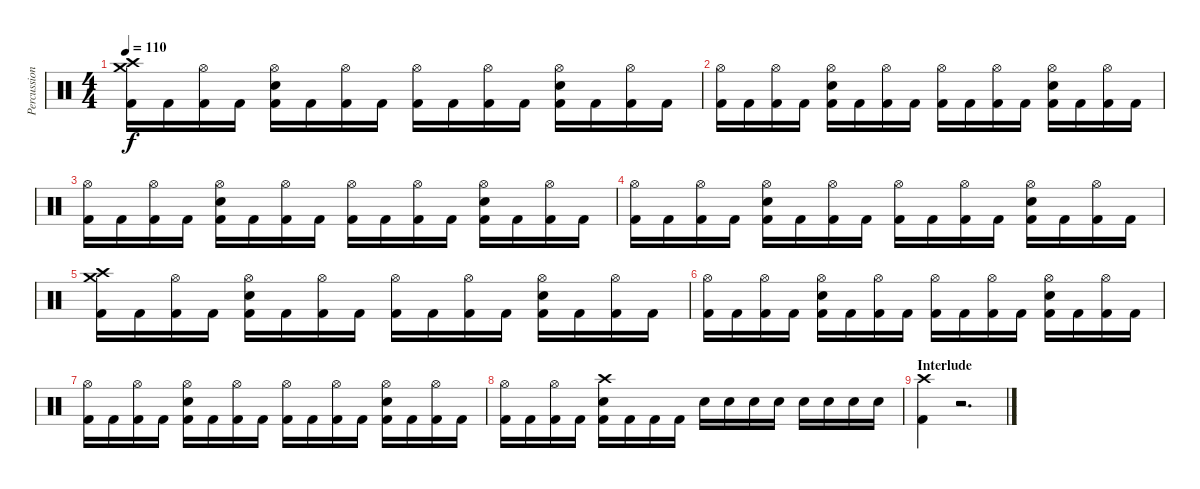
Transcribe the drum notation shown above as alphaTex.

\track ("Percussions" "Percussion") {instrument percussion}
\staff {score}
\articulation defaults
\ts (4 4)
\tempo 110
\clef neutral
\ks c
("Crash high (hit)" "Crash medium (hit)" "Kick (hit) 2").16{dy f} "Kick (hit) 2".16 ("Hi-Hat (open)" "Kick (hit) 2").16 "Kick (hit) 2".16 ("Hi-Hat (open)" "Electric Snare (hit)" "Kick (hit) 2").16 "Kick (hit) 2".16 ("Hi-Hat (open)" "Kick (hit) 2").16 "Kick (hit) 2".16 ("Hi-Hat (open)" "Kick (hit) 2").16 "Kick (hit) 2".16 ("Hi-Hat (open)" "Kick (hit) 2").16 "Kick (hit) 2".16 ("Hi-Hat (open)" "Electric Snare (hit)" "Kick (hit) 2").16 "Kick (hit) 2".16 ("Hi-Hat (open)" "Kick (hit) 2").16 "Kick (hit) 2".16 |
("Hi-Hat (open)" "Kick (hit) 2").16 "Kick (hit) 2".16 ("Hi-Hat (open)" "Kick (hit) 2").16 "Kick (hit) 2".16 ("Hi-Hat (open)" "Electric Snare (hit)" "Kick (hit) 2").16 "Kick (hit) 2".16 ("Hi-Hat (open)" "Kick (hit) 2").16 "Kick (hit) 2".16 ("Hi-Hat (open)" "Kick (hit) 2").16 "Kick (hit) 2".16 ("Hi-Hat (open)" "Kick (hit) 2").16 "Kick (hit) 2".16 ("Hi-Hat (open)" "Electric Snare (hit)" "Kick (hit) 2").16 "Kick (hit) 2".16 ("Hi-Hat (open)" "Kick (hit) 2").16 "Kick (hit) 2".16 |
("Hi-Hat (open)" "Kick (hit) 2").16 "Kick (hit) 2".16 ("Hi-Hat (open)" "Kick (hit) 2").16 "Kick (hit) 2".16 ("Hi-Hat (open)" "Electric Snare (hit)" "Kick (hit) 2").16 "Kick (hit) 2".16 ("Hi-Hat (open)" "Kick (hit) 2").16 "Kick (hit) 2".16 ("Hi-Hat (open)" "Kick (hit) 2").16 "Kick (hit) 2".16 ("Hi-Hat (open)" "Kick (hit) 2").16 "Kick (hit) 2".16 ("Hi-Hat (open)" "Electric Snare (hit)" "Kick (hit) 2").16 "Kick (hit) 2".16 ("Hi-Hat (open)" "Kick (hit) 2").16 "Kick (hit) 2".16 |
("Hi-Hat (open)" "Kick (hit) 2").16 "Kick (hit) 2".16 ("Hi-Hat (open)" "Kick (hit) 2").16 "Kick (hit) 2".16 ("Hi-Hat (open)" "Electric Snare (hit)" "Kick (hit) 2").16 "Kick (hit) 2".16 ("Hi-Hat (open)" "Kick (hit) 2").16 "Kick (hit) 2".16 ("Hi-Hat (open)" "Kick (hit) 2").16 "Kick (hit) 2".16 ("Hi-Hat (open)" "Kick (hit) 2").16 "Kick (hit) 2".16 ("Hi-Hat (open)" "Electric Snare (hit)" "Kick (hit) 2").16 "Kick (hit) 2".16 ("Hi-Hat (open)" "Kick (hit) 2").16 "Kick (hit) 2".16 |
("Crash high (hit)" "Crash medium (hit)" "Kick (hit) 2").16 "Kick (hit) 2".16 ("Hi-Hat (open)" "Kick (hit) 2").16 "Kick (hit) 2".16 ("Hi-Hat (open)" "Electric Snare (hit)" "Kick (hit) 2").16 "Kick (hit) 2".16 ("Hi-Hat (open)" "Kick (hit) 2").16 "Kick (hit) 2".16 ("Hi-Hat (open)" "Kick (hit) 2").16 "Kick (hit) 2".16 ("Hi-Hat (open)" "Kick (hit) 2").16 "Kick (hit) 2".16 ("Hi-Hat (open)" "Electric Snare (hit)" "Kick (hit) 2").16 "Kick (hit) 2".16 ("Hi-Hat (open)" "Kick (hit) 2").16 "Kick (hit) 2".16 |
("Hi-Hat (open)" "Kick (hit) 2").16 "Kick (hit) 2".16 ("Hi-Hat (open)" "Kick (hit) 2").16 "Kick (hit) 2".16 ("Hi-Hat (open)" "Electric Snare (hit)" "Kick (hit) 2").16 "Kick (hit) 2".16 ("Hi-Hat (open)" "Kick (hit) 2").16 "Kick (hit) 2".16 ("Hi-Hat (open)" "Kick (hit) 2").16 "Kick (hit) 2".16 ("Hi-Hat (open)" "Kick (hit) 2").16 "Kick (hit) 2".16 ("Hi-Hat (open)" "Electric Snare (hit)" "Kick (hit) 2").16 "Kick (hit) 2".16 ("Hi-Hat (open)" "Kick (hit) 2").16 "Kick (hit) 2".16 |
("Hi-Hat (open)" "Kick (hit) 2").16 "Kick (hit) 2".16 ("Hi-Hat (open)" "Kick (hit) 2").16 "Kick (hit) 2".16 ("Hi-Hat (open)" "Electric Snare (hit)" "Kick (hit) 2").16 "Kick (hit) 2".16 ("Hi-Hat (open)" "Kick (hit) 2").16 "Kick (hit) 2".16 ("Hi-Hat (open)" "Kick (hit) 2").16 "Kick (hit) 2".16 ("Hi-Hat (open)" "Kick (hit) 2").16 "Kick (hit) 2".16 ("Hi-Hat (open)" "Electric Snare (hit)" "Kick (hit) 2").16 "Kick (hit) 2".16 ("Hi-Hat (open)" "Kick (hit) 2").16 "Kick (hit) 2".16 |
("Hi-Hat (open)" "Kick (hit) 2").16 "Kick (hit) 2".16 ("Hi-Hat (open)" "Kick (hit) 2").16 "Kick (hit) 2".16 ("Crash high (hit)" "Electric Snare (hit)" "Kick (hit) 2").16 "Kick (hit) 2".16 "Kick (hit) 2".16 "Kick (hit) 2".16 "Electric Snare (hit)".16 "Electric Snare (hit)".16 "Electric Snare (hit)".16 "Electric Snare (hit)".16 "Electric Snare (hit)".16 "Electric Snare (hit)".16 "Electric Snare (hit)".16 "Electric Snare (hit)".16 |
\section ("" "Interlude")
("Crash high (hit)" "Kick (hit) 2").4 r.2{d}
